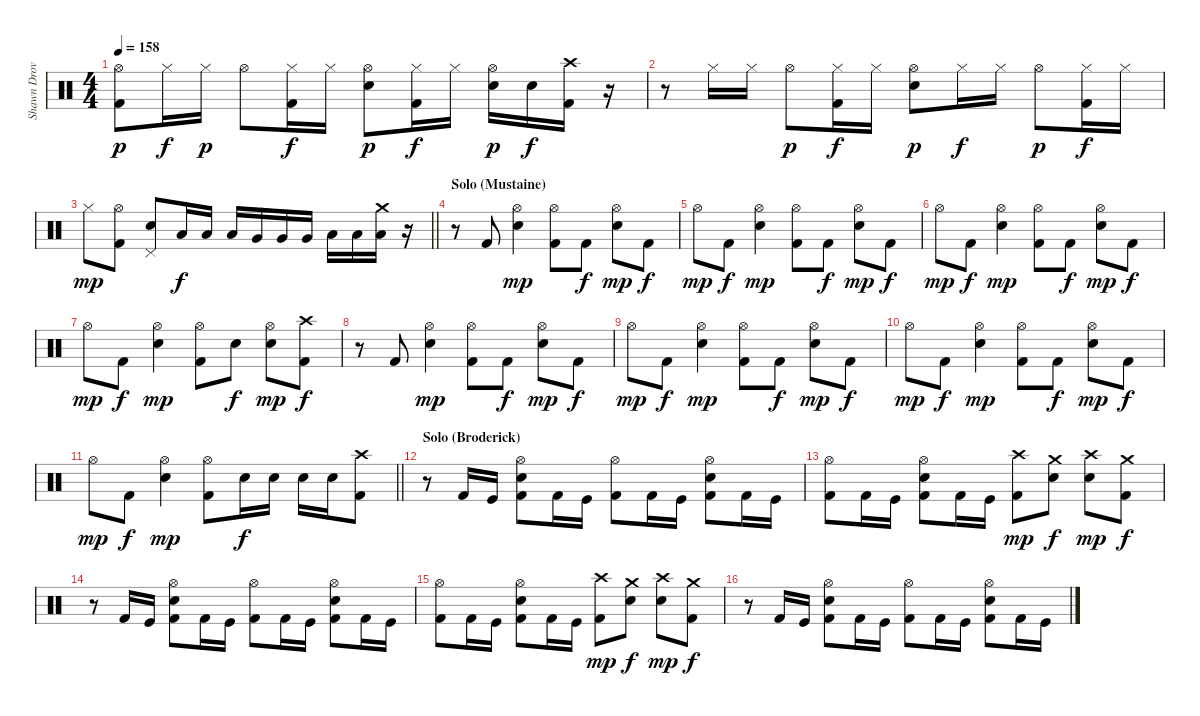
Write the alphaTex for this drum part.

\track ("Shawn Drover" "Shawn Drov") {instrument percussion}
\staff
\articulation defaults
\ts (4 4)
\tempo 158
\clef neutral
\ks c
("Hi-Hat (open)" "Kick (hit) 2").8{dy p} "Hi-Hat (closed)".16{dy f} "Hi-Hat (closed)".16{dy p} "Hi-Hat (open)".8 ("Hi-Hat (closed)" "Kick (hit) 2").16{dy f} "Hi-Hat (closed)".16 ("Hi-Hat (open)" "Snare (hit) 2").8{dy p} ("Hi-Hat (closed)" "Kick (hit) 2").16{dy f} "Hi-Hat (closed)".16 ("Hi-Hat (open)" "Snare (hit) 2").16{dy p} "Snare (hit) 2".16{dy f} ("Crash high (hit)" "Kick (hit) 2").16 r.16 |
r.8 "Hi-Hat (closed)".16 "Hi-Hat (closed)".16 "Hi-Hat (open)".8{dy p} ("Hi-Hat (closed)" "Kick (hit) 2").16{dy f} "Hi-Hat (closed)".16 ("Hi-Hat (open)" "Snare (hit) 2").8{dy p} "Hi-Hat (closed)".16{dy f} "Hi-Hat (closed)".16 "Hi-Hat (open)".8{dy p} ("Hi-Hat (closed)" "Kick (hit) 2").16{dy f} "Hi-Hat (closed)".16 |
\barLineRight lightlight "Hi-Hat (closed)".8{dy mp}
("Hi-Hat (open)" "Kick (hit) 2").8 ("Pedal Hi-Hat (hit)" "Snare (hit) 2").8 "Low Tom (hit)".16{dy f} "Low Tom (hit)".16 "Low Tom (hit)".16 "Very Low Tom (hit)".16 "Very Low Tom (hit)".16 "Very Low Tom (hit)".16 "Low Floor Tom (hit)".16 "Low Floor Tom (hit)".16 ("Crash medium (hit)" "Low Floor Tom (hit)").16 r.16 |
\section ("" "Solo (Mustaine)")
r.8 "Kick (hit) 2".8 ("Hi-Hat (open)" "Snare (hit) 2").4{dy mp} ("Hi-Hat (open)" "Kick (hit) 2").8 "Kick (hit) 2".8{dy f} ("Hi-Hat (open)" "Snare (hit) 2").8{dy mp} "Kick (hit) 2".8{dy f} |
"Hi-Hat (open)".8{dy mp} "Kick (hit) 2".8{dy f} ("Hi-Hat (open)" "Snare (hit) 2").4{dy mp} ("Hi-Hat (open)" "Kick (hit) 2").8 "Kick (hit) 2".8{dy f} ("Hi-Hat (open)" "Snare (hit) 2").8{dy mp} "Kick (hit) 2".8{dy f} |
"Hi-Hat (open)".8{dy mp} "Kick (hit) 2".8{dy f} ("Hi-Hat (open)" "Snare (hit) 2").4{dy mp} ("Hi-Hat (open)" "Kick (hit) 2").8 "Kick (hit) 2".8{dy f} ("Hi-Hat (open)" "Snare (hit) 2").8{dy mp} "Kick (hit) 2".8{dy f} |
"Hi-Hat (open)".8{dy mp} "Kick (hit) 2".8{dy f} ("Hi-Hat (open)" "Snare (hit) 2").4{dy mp} ("Hi-Hat (open)" "Kick (hit) 2").8 "Snare (hit) 2".8{dy f} ("Hi-Hat (open)" "Snare (hit) 2").8{dy mp} ("Crash high (hit)" "Kick (hit) 2").8{dy f} |
r.8 "Kick (hit) 2".8 ("Hi-Hat (open)" "Snare (hit) 2").4{dy mp} ("Hi-Hat (open)" "Kick (hit) 2").8 "Kick (hit) 2".8{dy f} ("Hi-Hat (open)" "Snare (hit) 2").8{dy mp} "Kick (hit) 2".8{dy f} |
"Hi-Hat (open)".8{dy mp} "Kick (hit) 2".8{dy f} ("Hi-Hat (open)" "Snare (hit) 2").4{dy mp} ("Hi-Hat (open)" "Kick (hit) 2").8 "Kick (hit) 2".8{dy f} ("Hi-Hat (open)" "Snare (hit) 2").8{dy mp} "Kick (hit) 2".8{dy f} |
"Hi-Hat (open)".8{dy mp} "Kick (hit) 2".8{dy f} ("Hi-Hat (open)" "Snare (hit) 2").4{dy mp} ("Hi-Hat (open)" "Kick (hit) 2").8 "Kick (hit) 2".8{dy f} ("Hi-Hat (open)" "Snare (hit) 2").8{dy mp} "Kick (hit) 2".8{dy f} |
\barLineRight lightlight "Hi-Hat (open)".8{dy mp} "Kick (hit) 2".8{dy f}
("Hi-Hat (open)" "Snare (hit) 2").4{dy mp} ("Hi-Hat (open)" "Kick (hit) 2").8 "Snare (hit) 2".16{dy f} "Snare (hit) 2".16 "Snare (hit) 2".16 "Snare (hit) 2".16 ("Crash high (hit)" "Kick (hit) 2").8 |
\section ("" "Solo (Broderick)")
r.8 "Kick (hit) 2".16 "Kick (hit)".16 ("Hi-Hat (open)" "Snare (hit) 2" "Kick (hit) 2").8 "Kick (hit) 2".16 "Kick (hit)".16 ("Hi-Hat (open)" "Kick (hit) 2").8 "Kick (hit) 2".16 "Kick (hit)".16 ("Hi-Hat (open)" "Snare (hit) 2" "Kick (hit) 2").8 "Kick (hit) 2".16 "Kick (hit)".16 |
("Hi-Hat (open)" "Kick (hit) 2").8 "Kick (hit) 2".16 "Kick (hit)".16 ("Hi-Hat (open)" "Snare (hit) 2" "Kick (hit) 2").8 "Kick (hit) 2".16 "Kick (hit)".16 ("Crash high (hit)" "Kick (hit) 2").8{dy mp} ("Crash medium (hit)" "Snare (hit) 2").8{dy f} ("Crash high (hit)" "Snare (hit) 2").8{dy mp} ("Crash medium (hit)" "Kick (hit) 2").8{dy f} |
r.8 "Kick (hit) 2".16 "Kick (hit)".16 ("Hi-Hat (open)" "Snare (hit) 2" "Kick (hit) 2").8 "Kick (hit) 2".16 "Kick (hit)".16 ("Hi-Hat (open)" "Kick (hit) 2").8 "Kick (hit) 2".16 "Kick (hit)".16 ("Hi-Hat (open)" "Snare (hit) 2" "Kick (hit) 2").8 "Kick (hit) 2".16 "Kick (hit)".16 |
("Hi-Hat (open)" "Kick (hit) 2").8 "Kick (hit) 2".16 "Kick (hit)".16 ("Hi-Hat (open)" "Snare (hit) 2" "Kick (hit) 2").8 "Kick (hit) 2".16 "Kick (hit)".16 ("Crash high (hit)" "Kick (hit) 2").8{dy mp} ("Crash medium (hit)" "Snare (hit) 2").8{dy f} ("Crash high (hit)" "Snare (hit) 2").8{dy mp} ("Crash medium (hit)" "Kick (hit) 2").8{dy f} |
r.8 "Kick (hit) 2".16 "Kick (hit)".16 ("Hi-Hat (open)" "Snare (hit) 2" "Kick (hit) 2").8 "Kick (hit) 2".16 "Kick (hit)".16 ("Hi-Hat (open)" "Kick (hit) 2").8 "Kick (hit) 2".16 "Kick (hit)".16 ("Hi-Hat (open)" "Snare (hit) 2" "Kick (hit) 2").8 "Kick (hit) 2".16 "Kick (hit)".16
